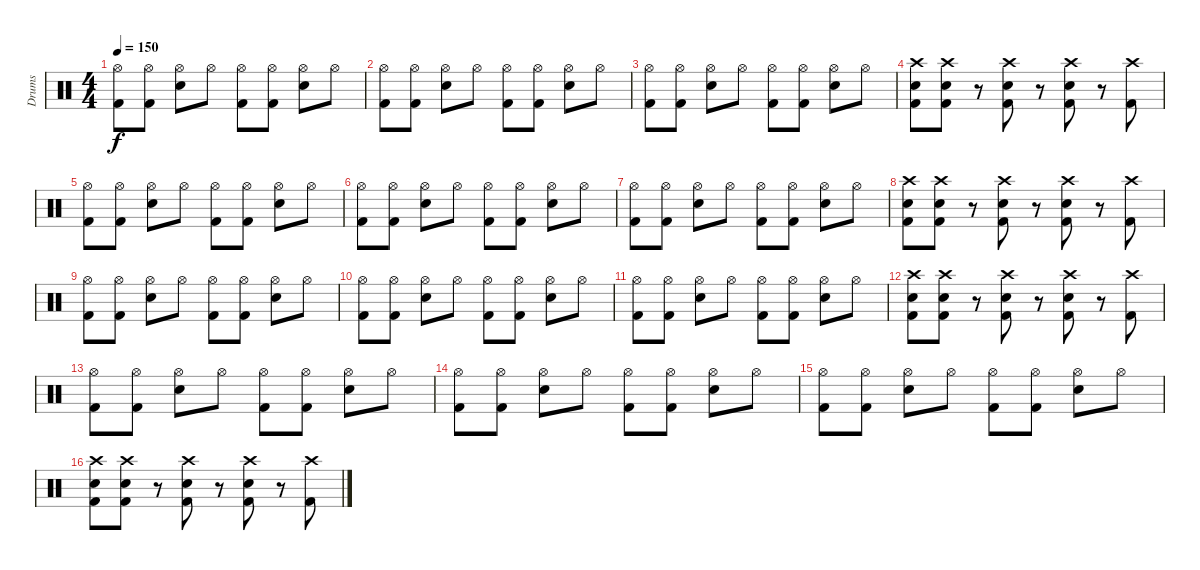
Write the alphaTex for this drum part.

\track ("Drums" "Drums") {instrument percussion}
\staff {score}
\articulation defaults
\ts (4 4)
\tempo 150
\clef neutral
\ks c
("Hi-Hat (open)" "Kick (hit) 2").8{dy f} ("Hi-Hat (open)" "Kick (hit) 2").8 ("Hi-Hat (open)" "Electric Snare (hit)").8 "Hi-Hat (open)".8 ("Hi-Hat (open)" "Kick (hit) 2").8 ("Hi-Hat (open)" "Kick (hit) 2").8 ("Hi-Hat (open)" "Electric Snare (hit)").8 "Hi-Hat (open)".8 |
("Hi-Hat (open)" "Kick (hit) 2").8 ("Hi-Hat (open)" "Kick (hit) 2").8 ("Hi-Hat (open)" "Electric Snare (hit)").8 "Hi-Hat (open)".8 ("Hi-Hat (open)" "Kick (hit) 2").8 ("Hi-Hat (open)" "Kick (hit) 2").8 ("Hi-Hat (open)" "Electric Snare (hit)").8 "Hi-Hat (open)".8 |
("Hi-Hat (open)" "Kick (hit) 2").8 ("Hi-Hat (open)" "Kick (hit) 2").8 ("Hi-Hat (open)" "Electric Snare (hit)").8 "Hi-Hat (open)".8 ("Hi-Hat (open)" "Kick (hit) 2").8 ("Hi-Hat (open)" "Kick (hit) 2").8 ("Hi-Hat (open)" "Electric Snare (hit)").8 "Hi-Hat (open)".8 |
("Crash high (hit)" "Electric Snare (hit)" "Kick (hit) 2").8 ("Crash high (hit)" "Electric Snare (hit)" "Kick (hit) 2").8 r.8 ("Crash high (hit)" "Electric Snare (hit)" "Kick (hit) 2").8 r.8 ("Crash high (hit)" "Electric Snare (hit)" "Kick (hit) 2").8 r.8 ("Crash high (hit)" "Kick (hit) 2").8 |
("Hi-Hat (open)" "Kick (hit) 2").8 ("Hi-Hat (open)" "Kick (hit) 2").8 ("Hi-Hat (open)" "Electric Snare (hit)").8 "Hi-Hat (open)".8 ("Hi-Hat (open)" "Kick (hit) 2").8 ("Hi-Hat (open)" "Kick (hit) 2").8 ("Hi-Hat (open)" "Electric Snare (hit)").8 "Hi-Hat (open)".8 |
("Hi-Hat (open)" "Kick (hit) 2").8 ("Hi-Hat (open)" "Kick (hit) 2").8 ("Hi-Hat (open)" "Electric Snare (hit)").8 "Hi-Hat (open)".8 ("Hi-Hat (open)" "Kick (hit) 2").8 ("Hi-Hat (open)" "Kick (hit) 2").8 ("Hi-Hat (open)" "Electric Snare (hit)").8 "Hi-Hat (open)".8 |
("Hi-Hat (open)" "Kick (hit) 2").8 ("Hi-Hat (open)" "Kick (hit) 2").8 ("Hi-Hat (open)" "Electric Snare (hit)").8 "Hi-Hat (open)".8 ("Hi-Hat (open)" "Kick (hit) 2").8 ("Hi-Hat (open)" "Kick (hit) 2").8 ("Hi-Hat (open)" "Electric Snare (hit)").8 "Hi-Hat (open)".8 |
("Crash high (hit)" "Electric Snare (hit)" "Kick (hit) 2").8 ("Crash high (hit)" "Electric Snare (hit)" "Kick (hit) 2").8 r.8 ("Crash high (hit)" "Electric Snare (hit)" "Kick (hit) 2").8 r.8 ("Crash high (hit)" "Electric Snare (hit)" "Kick (hit) 2").8 r.8 ("Crash high (hit)" "Kick (hit) 2").8 |
("Hi-Hat (open)" "Kick (hit) 2").8 ("Hi-Hat (open)" "Kick (hit) 2").8 ("Hi-Hat (open)" "Electric Snare (hit)").8 "Hi-Hat (open)".8 ("Hi-Hat (open)" "Kick (hit) 2").8 ("Hi-Hat (open)" "Kick (hit) 2").8 ("Hi-Hat (open)" "Electric Snare (hit)").8 "Hi-Hat (open)".8 |
("Hi-Hat (open)" "Kick (hit) 2").8 ("Hi-Hat (open)" "Kick (hit) 2").8 ("Hi-Hat (open)" "Electric Snare (hit)").8 "Hi-Hat (open)".8 ("Hi-Hat (open)" "Kick (hit) 2").8 ("Hi-Hat (open)" "Kick (hit) 2").8 ("Hi-Hat (open)" "Electric Snare (hit)").8 "Hi-Hat (open)".8 |
("Hi-Hat (open)" "Kick (hit) 2").8 ("Hi-Hat (open)" "Kick (hit) 2").8 ("Hi-Hat (open)" "Electric Snare (hit)").8 "Hi-Hat (open)".8 ("Hi-Hat (open)" "Kick (hit) 2").8 ("Hi-Hat (open)" "Kick (hit) 2").8 ("Hi-Hat (open)" "Electric Snare (hit)").8 "Hi-Hat (open)".8 |
("Crash high (hit)" "Electric Snare (hit)" "Kick (hit) 2").8 ("Crash high (hit)" "Electric Snare (hit)" "Kick (hit) 2").8 r.8 ("Crash high (hit)" "Electric Snare (hit)" "Kick (hit) 2").8 r.8 ("Crash high (hit)" "Electric Snare (hit)" "Kick (hit) 2").8 r.8 ("Crash high (hit)" "Kick (hit) 2").8 |
("Hi-Hat (open)" "Kick (hit) 2").8 ("Hi-Hat (open)" "Kick (hit) 2").8 ("Hi-Hat (open)" "Electric Snare (hit)").8 "Hi-Hat (open)".8 ("Hi-Hat (open)" "Kick (hit) 2").8 ("Hi-Hat (open)" "Kick (hit) 2").8 ("Hi-Hat (open)" "Electric Snare (hit)").8 "Hi-Hat (open)".8 |
("Hi-Hat (open)" "Kick (hit) 2").8 ("Hi-Hat (open)" "Kick (hit) 2").8 ("Hi-Hat (open)" "Electric Snare (hit)").8 "Hi-Hat (open)".8 ("Hi-Hat (open)" "Kick (hit) 2").8 ("Hi-Hat (open)" "Kick (hit) 2").8 ("Hi-Hat (open)" "Electric Snare (hit)").8 "Hi-Hat (open)".8 |
("Hi-Hat (open)" "Kick (hit) 2").8 ("Hi-Hat (open)" "Kick (hit) 2").8 ("Hi-Hat (open)" "Electric Snare (hit)").8 "Hi-Hat (open)".8 ("Hi-Hat (open)" "Kick (hit) 2").8 ("Hi-Hat (open)" "Kick (hit) 2").8 ("Hi-Hat (open)" "Electric Snare (hit)").8 "Hi-Hat (open)".8 |
("Crash high (hit)" "Electric Snare (hit)" "Kick (hit) 2").8 ("Crash high (hit)" "Electric Snare (hit)" "Kick (hit) 2").8 r.8 ("Crash high (hit)" "Electric Snare (hit)" "Kick (hit) 2").8 r.8 ("Crash high (hit)" "Electric Snare (hit)" "Kick (hit) 2").8 r.8 ("Crash high (hit)" "Kick (hit) 2").8
